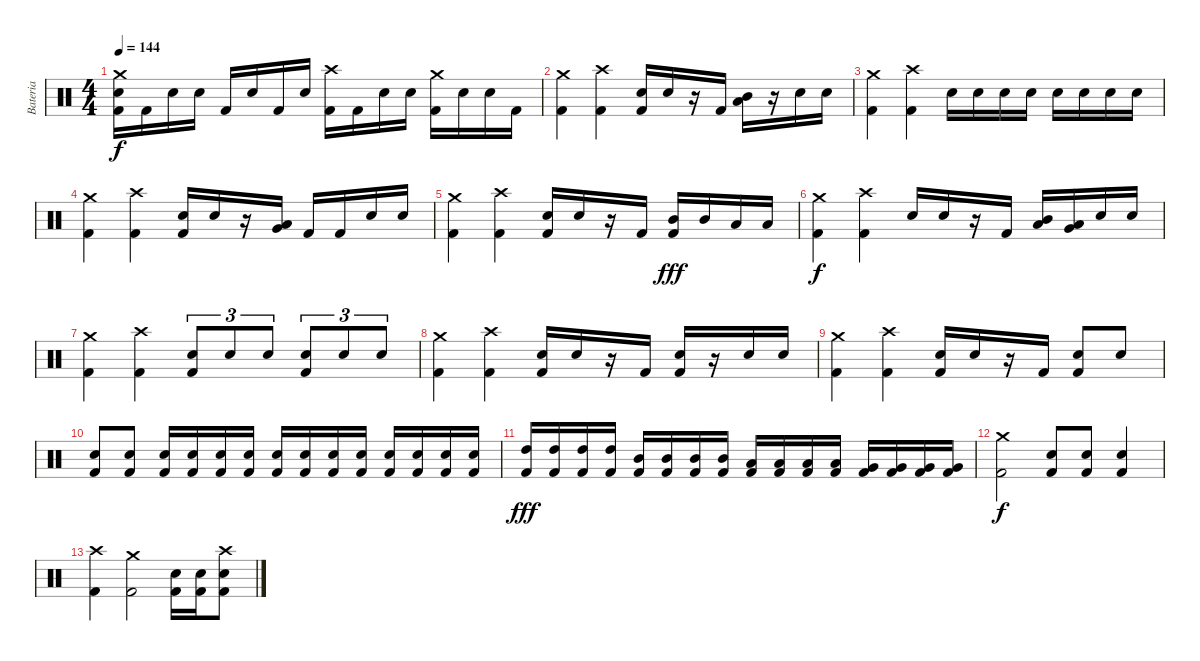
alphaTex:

\track ("Bateria" "Bateria") {instrument percussion}
\staff {score}
\articulation defaults
\ts (4 4)
\tempo 144
\clef neutral
\ks c
("Crash medium (hit)" "Electric Snare (hit)" "Kick (hit) 2").16{dy f} "Kick (hit) 2".16 "Electric Snare (hit)".16 "Electric Snare (hit)".16 "Kick (hit) 2".16 "Electric Snare (hit)".16 "Kick (hit) 2".16 "Electric Snare (hit)".16 ("Crash high (hit)" "Kick (hit) 2").16 "Kick (hit) 2".16 "Electric Snare (hit)".16 "Electric Snare (hit)".16 ("Crash medium (hit)" "Kick (hit) 2").16 "Electric Snare (hit)".16 "Electric Snare (hit)".16 "Kick (hit) 2".16 |
("Crash medium (hit)" "Kick (hit) 2").4 ("Crash high (hit)" "Kick (hit) 2").4 ("Electric Snare (hit)" "Kick (hit) 2").16 "Electric Snare (hit)".16 r.16 "Kick (hit) 2".16 ("Low Tom (hit)" "Mid Tom (hit)").16 r.16 "Electric Snare (hit)".16 "Electric Snare (hit)".16 |
("Crash medium (hit)" "Kick (hit) 2").4 ("Crash high (hit)" "Kick (hit) 2").4 "Electric Snare (hit)".16 "Electric Snare (hit)".16 "Electric Snare (hit)".16 "Electric Snare (hit)".16 "Electric Snare (hit)".16 "Electric Snare (hit)".16 "Electric Snare (hit)".16 "Electric Snare (hit)".16 |
("Crash medium (hit)" "Kick (hit) 2").4 ("Crash high (hit)" "Kick (hit) 2").4 ("Electric Snare (hit)" "Kick (hit) 2").16 "Electric Snare (hit)".16 r.16 ("Very Low Tom (hit)" "Low Tom (hit)").16 "Kick (hit) 2".16 "Kick (hit) 2".16 "Electric Snare (hit)".16 "Electric Snare (hit)".16 |
("Crash medium (hit)" "Kick (hit) 2").4 ("Crash high (hit)" "Kick (hit) 2").4 ("Electric Snare (hit)" "Kick (hit) 2").16 "Electric Snare (hit)".16 r.16 "Kick (hit) 2".16 ("Mid Tom (hit)" "Kick (hit) 2").16{dy fff} "Mid Tom (hit)".16 "Low Tom (hit)".16 "Low Tom (hit)".16 |
("Crash medium (hit)" "Kick (hit) 2").4{dy f} ("Crash high (hit)" "Kick (hit) 2").4 "Electric Snare (hit)".16 "Electric Snare (hit)".16 r.16 "Kick (hit) 2".16 ("Low Tom (hit)" "Mid Tom (hit)").16 ("Very Low Tom (hit)" "Low Tom (hit)").16 "Electric Snare (hit)".16 "Electric Snare (hit)".16 |
("Crash medium (hit)" "Kick (hit) 2").4 ("Crash high (hit)" "Kick (hit) 2").4 ("Electric Snare (hit)" "Kick (hit) 2").8{tu (3 2)} "Electric Snare (hit)".8{tu (3 2)} "Electric Snare (hit)".8{tu (3 2)} ("Electric Snare (hit)" "Kick (hit) 2").8{tu (3 2)} "Electric Snare (hit)".8{tu (3 2)} "Electric Snare (hit)".8{tu (3 2)} |
("Crash medium (hit)" "Kick (hit) 2").4 ("Crash high (hit)" "Kick (hit) 2").4 ("Electric Snare (hit)" "Kick (hit) 2").16 "Electric Snare (hit)".16 r.16 "Kick (hit) 2".16 ("Electric Snare (hit)" "Kick (hit) 2").16 r.16 "Electric Snare (hit)".16 "Electric Snare (hit)".16 |
("Crash medium (hit)" "Kick (hit) 2").4 ("Crash high (hit)" "Kick (hit) 2").4 ("Electric Snare (hit)" "Kick (hit) 2").16 "Electric Snare (hit)".16 r.16 "Kick (hit) 2".16 ("Electric Snare (hit)" "Kick (hit) 2").8 "Electric Snare (hit)".8 |
("Electric Snare (hit)" "Kick (hit) 2").8 ("Electric Snare (hit)" "Kick (hit) 2").8 ("Electric Snare (hit)" "Kick (hit) 2").16 ("Electric Snare (hit)" "Kick (hit) 2").16 ("Electric Snare (hit)" "Kick (hit) 2").16 ("Electric Snare (hit)" "Kick (hit) 2").16 ("Electric Snare (hit)" "Kick (hit) 2").16 ("Electric Snare (hit)" "Kick (hit) 2").16 ("Electric Snare (hit)" "Kick (hit) 2").16 ("Electric Snare (hit)" "Kick (hit) 2").16 ("Electric Snare (hit)" "Kick (hit) 2").16 ("Electric Snare (hit)" "Kick (hit) 2").16 ("Electric Snare (hit)" "Kick (hit) 2").16 ("Electric Snare (hit)" "Kick (hit) 2").16 |
("High Tom (hit)" "Kick (hit) 2").16{dy fff} ("High Tom (hit)" "Kick (hit) 2").16 ("High Tom (hit)" "Kick (hit) 2").16 ("High Tom (hit)" "Kick (hit) 2").16 ("Mid Tom (hit)" "Kick (hit) 2").16 ("Mid Tom (hit)" "Kick (hit) 2").16 ("Mid Tom (hit)" "Kick (hit) 2").16 ("Mid Tom (hit)" "Kick (hit) 2").16 ("Low Tom (hit)" "Kick (hit) 2").16 ("Low Tom (hit)" "Kick (hit) 2").16 ("Low Tom (hit)" "Kick (hit) 2").16 ("Low Tom (hit)" "Kick (hit) 2").16 ("Very Low Tom (hit)" "Kick (hit) 2").16 ("Very Low Tom (hit)" "Kick (hit) 2").16 ("Very Low Tom (hit)" "Kick (hit) 2").16 ("Very Low Tom (hit)" "Kick (hit) 2").16 |
("Crash medium (hit)" "Kick (hit) 2").2{dy f} ("Electric Snare (hit)" "Kick (hit) 2").8 ("Electric Snare (hit)" "Kick (hit) 2").8 ("Electric Snare (hit)" "Kick (hit) 2").4 |
("Crash high (hit)" "Kick (hit) 2").4 ("Crash medium (hit)" "Kick (hit) 2").2 ("Electric Snare (hit)" "Kick (hit) 2").16 ("Electric Snare (hit)" "Kick (hit) 2").16 ("Crash high (hit)" "Electric Snare (hit)" "Kick (hit) 2").8
